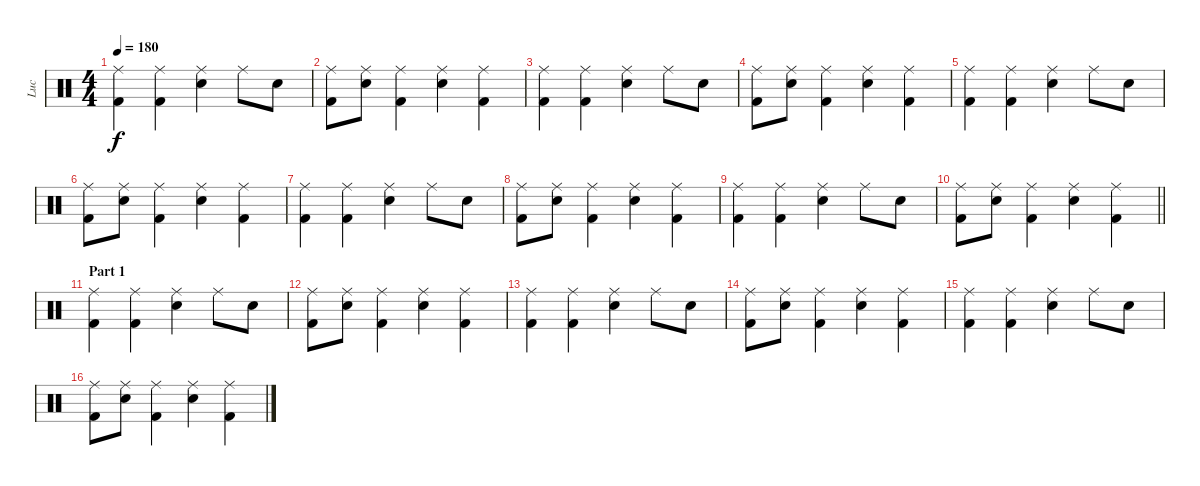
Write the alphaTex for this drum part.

\track ("Luc" "Luc") {instrument percussion}
\staff {score}
\articulation defaults
\ts (4 4)
\tempo 180
\clef neutral
\ks c
("Ride (middle)" "Kick (hit) 2").4{dy f} ("Ride (middle)" "Kick (hit) 2").4 ("Ride (middle)" "Snare (hit) 2").4 "Ride (middle)".8 "Snare (hit) 2".8 |
("Ride (middle)" "Kick (hit) 2").8 ("Ride (middle)" "Snare (hit) 2").8 ("Ride (middle)" "Kick (hit) 2").4 ("Ride (middle)" "Snare (hit) 2").4 ("Ride (middle)" "Kick (hit) 2").4 |
("Ride (middle)" "Kick (hit) 2").4 ("Ride (middle)" "Kick (hit) 2").4 ("Ride (middle)" "Snare (hit) 2").4 "Ride (middle)".8 "Snare (hit) 2".8 |
("Ride (middle)" "Kick (hit) 2").8 ("Ride (middle)" "Snare (hit) 2").8 ("Ride (middle)" "Kick (hit) 2").4 ("Ride (middle)" "Snare (hit) 2").4 ("Ride (middle)" "Kick (hit) 2").4 |
("Ride (middle)" "Kick (hit) 2").4 ("Ride (middle)" "Kick (hit) 2").4 ("Ride (middle)" "Snare (hit) 2").4 "Ride (middle)".8 "Snare (hit) 2".8 |
("Ride (middle)" "Kick (hit) 2").8 ("Ride (middle)" "Snare (hit) 2").8 ("Ride (middle)" "Kick (hit) 2").4 ("Ride (middle)" "Snare (hit) 2").4 ("Ride (middle)" "Kick (hit) 2").4 |
("Ride (middle)" "Kick (hit) 2").4 ("Ride (middle)" "Kick (hit) 2").4 ("Ride (middle)" "Snare (hit) 2").4 "Ride (middle)".8 "Snare (hit) 2".8 |
("Ride (middle)" "Kick (hit) 2").8 ("Ride (middle)" "Snare (hit) 2").8 ("Ride (middle)" "Kick (hit) 2").4 ("Ride (middle)" "Snare (hit) 2").4 ("Ride (middle)" "Kick (hit) 2").4 |
("Ride (middle)" "Kick (hit) 2").4 ("Ride (middle)" "Kick (hit) 2").4 ("Ride (middle)" "Snare (hit) 2").4 "Ride (middle)".8 "Snare (hit) 2".8 |
\barLineRight lightlight
("Ride (middle)" "Kick (hit) 2").8 ("Ride (middle)" "Snare (hit) 2").8 ("Ride (middle)" "Kick (hit) 2").4 ("Ride (middle)" "Snare (hit) 2").4 ("Ride (middle)" "Kick (hit) 2").4 |
\section ("" "Part 1")
("Ride (middle)" "Kick (hit) 2").4 ("Ride (middle)" "Kick (hit) 2").4 ("Ride (middle)" "Snare (hit) 2").4 "Ride (middle)".8 "Snare (hit) 2".8 |
("Ride (middle)" "Kick (hit) 2").8 ("Ride (middle)" "Snare (hit) 2").8 ("Ride (middle)" "Kick (hit) 2").4 ("Ride (middle)" "Snare (hit) 2").4 ("Ride (middle)" "Kick (hit) 2").4 |
("Ride (middle)" "Kick (hit) 2").4 ("Ride (middle)" "Kick (hit) 2").4 ("Ride (middle)" "Snare (hit) 2").4 "Ride (middle)".8 "Snare (hit) 2".8 |
("Ride (middle)" "Kick (hit) 2").8 ("Ride (middle)" "Snare (hit) 2").8 ("Ride (middle)" "Kick (hit) 2").4 ("Ride (middle)" "Snare (hit) 2").4 ("Ride (middle)" "Kick (hit) 2").4 |
("Ride (middle)" "Kick (hit) 2").4 ("Ride (middle)" "Kick (hit) 2").4 ("Ride (middle)" "Snare (hit) 2").4 "Ride (middle)".8 "Snare (hit) 2".8 |
("Ride (middle)" "Kick (hit) 2").8 ("Ride (middle)" "Snare (hit) 2").8 ("Ride (middle)" "Kick (hit) 2").4 ("Ride (middle)" "Snare (hit) 2").4 ("Ride (middle)" "Kick (hit) 2").4
